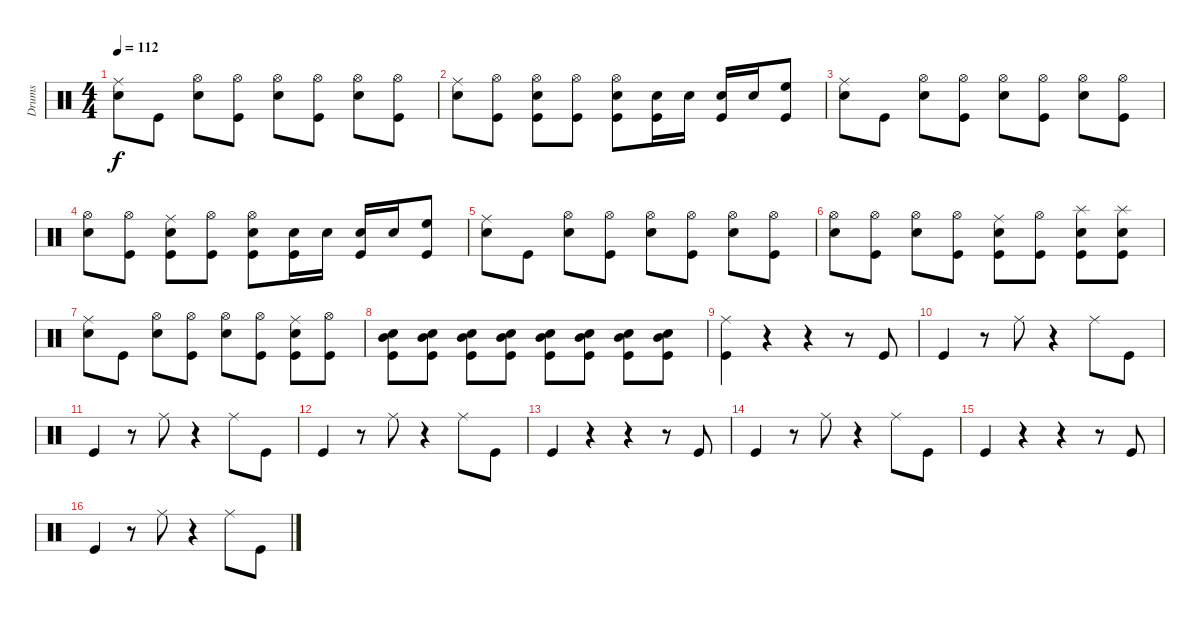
\track ("Drums" "Drums") {instrument percussion}
\staff {score}
\articulation defaults
\ts (4 4)
\tempo 112
\clef neutral
\ks c
("Ride (middle)" "Snare (hit) 2").8{dy f} "Kick (hit)".8 ("Hi-Hat (open)" "Snare (hit) 2").8 ("Hi-Hat (open)" "Kick (hit)").8 ("Hi-Hat (open)" "Snare (hit) 2").8 ("Hi-Hat (open)" "Kick (hit)").8 ("Hi-Hat (open)" "Snare (hit) 2").8 ("Hi-Hat (open)" "Kick (hit)").8 |
("Ride (middle)" "Snare (hit) 2").8 ("Hi-Hat (open)" "Kick (hit)").8 ("Hi-Hat (open)" "Snare (hit) 2" "Kick (hit)").8 ("Hi-Hat (open)" "Kick (hit)").8 ("Hi-Hat (open)" "Snare (hit) 2" "Kick (hit)").8 ("Snare (hit) 2" "Kick (hit)").16 "Snare (hit) 2".16 ("Snare (hit) 2" "Kick (hit)").16 "Snare (hit) 2".16 ("High Floor Tom (hit)" "Kick (hit)").8 |
("Ride (middle)" "Snare (hit) 2").8 "Kick (hit)".8 ("Hi-Hat (open)" "Snare (hit) 2").8 ("Hi-Hat (open)" "Kick (hit)").8 ("Hi-Hat (open)" "Snare (hit) 2").8 ("Hi-Hat (open)" "Kick (hit)").8 ("Hi-Hat (open)" "Snare (hit) 2").8 ("Hi-Hat (open)" "Kick (hit)").8 |
("Hi-Hat (open)" "Snare (hit) 2").8 ("Hi-Hat (open)" "Kick (hit)").8 ("Ride (middle)" "Snare (hit) 2" "Kick (hit)").8 ("Hi-Hat (open)" "Kick (hit)").8 ("Hi-Hat (open)" "Snare (hit) 2" "Kick (hit)").8 ("Snare (hit) 2" "Kick (hit)").16 "Snare (hit) 2".16 ("Snare (hit) 2" "Kick (hit)").16 "Snare (hit) 2".16 ("High Floor Tom (hit)" "Kick (hit)").8 |
("Ride (middle)" "Snare (hit) 2").8 "Kick (hit)".8 ("Hi-Hat (open)" "Snare (hit) 2").8 ("Hi-Hat (open)" "Kick (hit)").8 ("Hi-Hat (open)" "Snare (hit) 2").8 ("Hi-Hat (open)" "Kick (hit)").8 ("Hi-Hat (open)" "Snare (hit) 2").8 ("Hi-Hat (open)" "Kick (hit)").8 |
("Hi-Hat (open)" "Snare (hit) 2").8 ("Hi-Hat (open)" "Kick (hit)").8 ("Hi-Hat (open)" "Snare (hit) 2").8 ("Hi-Hat (open)" "Kick (hit)").8 ("Ride (middle)" "Snare (hit) 2" "Kick (hit)").8 ("Hi-Hat (open)" "Kick (hit)").8 ("Splash (hit)" "Snare (hit) 2" "Kick (hit)").8 ("Splash (hit)" "Snare (hit) 2" "Kick (hit)").8 |
("Ride (middle)" "Snare (hit) 2").8 "Kick (hit)".8 ("Hi-Hat (open)" "Snare (hit) 2").8 ("Hi-Hat (open)" "Kick (hit)").8 ("Hi-Hat (open)" "Snare (hit) 2").8 ("Hi-Hat (open)" "Kick (hit)").8 ("Ride (middle)" "Snare (hit) 2" "Kick (hit)").8 ("Hi-Hat (open)" "Kick (hit)").8 |
("Snare (hit) 2" "Mid Tom (hit)" "Kick (hit)").8 ("Snare (hit) 2" "Mid Tom (hit)" "Kick (hit)").8 ("Snare (hit) 2" "Mid Tom (hit)" "Kick (hit)").8 ("Snare (hit) 2" "Mid Tom (hit)" "Kick (hit)").8 ("Snare (hit) 2" "Mid Tom (hit)" "Kick (hit)").8 ("Snare (hit) 2" "Mid Tom (hit)" "Kick (hit)").8 ("Snare (hit) 2" "Mid Tom (hit)" "Kick (hit)").8 ("Snare (hit) 2" "Mid Tom (hit)" "Kick (hit)").8 |
("Ride (middle)" "Kick (hit)").4 r.4 r.4 r.8 "Kick (hit)".8 |
"Kick (hit)".4 r.8 "Ride (middle)".8 r.4 "Ride (middle)".8 "Kick (hit)".8 |
"Kick (hit)".4 r.8 "Ride (middle)".8 r.4 "Ride (middle)".8 "Kick (hit)".8 |
"Kick (hit)".4 r.8 "Ride (middle)".8 r.4 "Ride (middle)".8 "Kick (hit)".8 |
"Kick (hit)".4 r.4 r.4 r.8 "Kick (hit)".8 |
"Kick (hit)".4 r.8 "Ride (middle)".8 r.4 "Ride (middle)".8 "Kick (hit)".8 |
"Kick (hit)".4 r.4 r.4 r.8 "Kick (hit)".8 |
"Kick (hit)".4 r.8 "Ride (middle)".8 r.4 "Ride (middle)".8 "Kick (hit)".8
